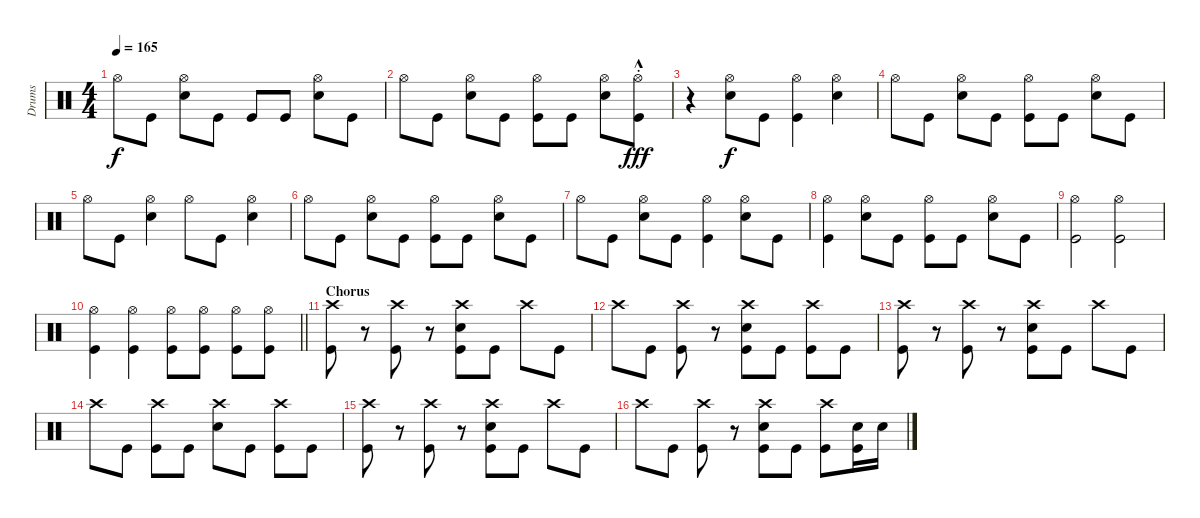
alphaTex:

\track ("Drums" "Drums") {instrument percussion}
\staff {score}
\articulation defaults
\ts (4 4)
\tempo 165
\clef neutral
\ks c "Hi-Hat (open)".8{dy f} "Kick (hit)".8
("Hi-Hat (open)" "Snare (hit) 2").8 "Kick (hit)".8 "Kick (hit)".8 "Kick (hit)".8 ("Hi-Hat (open)" "Snare (hit) 2").8 "Kick (hit)".8 |
"Hi-Hat (open)".8 "Kick (hit)".8 ("Hi-Hat (open)" "Snare (hit) 2").8 "Kick (hit)".8 ("Hi-Hat (open)" "Kick (hit)").8 "Kick (hit)".8 ("Hi-Hat (open)" "Snare (hit) 2").8 ("Hi-Hat (open)"{hac st} "Kick (hit)").8{dy fff} |
r.4 ("Hi-Hat (open)" "Snare (hit) 2").8{dy f} "Kick (hit)".8 ("Hi-Hat (open)" "Kick (hit)").4 ("Hi-Hat (open)" "Snare (hit) 2").4 |
"Hi-Hat (open)".8 "Kick (hit)".8 ("Hi-Hat (open)" "Snare (hit) 2").8 "Kick (hit)".8 ("Hi-Hat (open)" "Kick (hit)").8 "Kick (hit)".8 ("Hi-Hat (open)" "Snare (hit) 2").8 "Kick (hit)".8 |
"Hi-Hat (open)".8 "Kick (hit)".8 ("Hi-Hat (open)" "Snare (hit) 2").4 "Hi-Hat (open)".8 "Kick (hit)".8 ("Hi-Hat (open)" "Snare (hit) 2").4 |
"Hi-Hat (open)".8 "Kick (hit)".8 ("Hi-Hat (open)" "Snare (hit) 2").8 "Kick (hit)".8 ("Hi-Hat (open)" "Kick (hit)").8 "Kick (hit)".8 ("Hi-Hat (open)" "Snare (hit) 2").8 "Kick (hit)".8 |
"Hi-Hat (open)".8 "Kick (hit)".8 ("Hi-Hat (open)" "Snare (hit) 2").8 "Kick (hit)".8 ("Hi-Hat (open)" "Kick (hit)").4 ("Hi-Hat (open)" "Snare (hit) 2").8 "Kick (hit)".8 |
("Hi-Hat (open)" "Kick (hit)").4 ("Hi-Hat (open)" "Snare (hit) 2").8 "Kick (hit)".8 ("Hi-Hat (open)" "Kick (hit)").8 "Kick (hit)".8 ("Hi-Hat (open)" "Snare (hit) 2").8 "Kick (hit)".8 |
("Hi-Hat (open)" "Kick (hit)").2 ("Hi-Hat (open)" "Kick (hit)").2 |
\barLineRight lightlight
("Hi-Hat (open)" "Kick (hit)").4 ("Hi-Hat (open)" "Kick (hit)").4 ("Hi-Hat (open)" "Kick (hit)").8 ("Hi-Hat (open)" "Kick (hit)").8 ("Hi-Hat (open)" "Kick (hit)").8 ("Hi-Hat (open)" "Kick (hit)").8 |
\section ("" "Chorus")
("Crash high (hit)" "Kick (hit)").8 r.8 ("Crash high (hit)" "Kick (hit)").8 r.8 ("Crash high (hit)" "Snare (hit) 2" "Kick (hit)").8 "Kick (hit)".8 "Crash high (hit)".8 "Kick (hit)".8 |
"Crash high (hit)".8 "Kick (hit)".8 ("Crash high (hit)" "Kick (hit)").8 r.8 ("Crash high (hit)" "Snare (hit) 2" "Kick (hit)").8 "Kick (hit)".8 ("Crash high (hit)" "Kick (hit)").8 "Kick (hit)".8 |
("Crash high (hit)" "Kick (hit)").8 r.8 ("Crash high (hit)" "Kick (hit)").8 r.8 ("Crash high (hit)" "Snare (hit) 2" "Kick (hit)").8 "Kick (hit)".8 "Crash high (hit)".8 "Kick (hit)".8 |
"Crash high (hit)".8 "Kick (hit)".8 ("Crash high (hit)" "Kick (hit)").8 "Kick (hit)".8 ("Crash high (hit)" "Snare (hit) 2").8 "Kick (hit)".8 ("Crash high (hit)" "Kick (hit)").8 "Kick (hit)".8 |
("Crash high (hit)" "Kick (hit)").8 r.8 ("Crash high (hit)" "Kick (hit)").8 r.8 ("Crash high (hit)" "Snare (hit) 2" "Kick (hit)").8 "Kick (hit)".8 "Crash high (hit)".8 "Kick (hit)".8 |
"Crash high (hit)".8 "Kick (hit)".8 ("Crash high (hit)" "Kick (hit)").8 r.8 ("Crash high (hit)" "Snare (hit) 2" "Kick (hit)").8 "Kick (hit)".8 ("Crash high (hit)" "Kick (hit)").8 ("Snare (hit) 2" "Kick (hit)").16 "Snare (hit) 2".16
